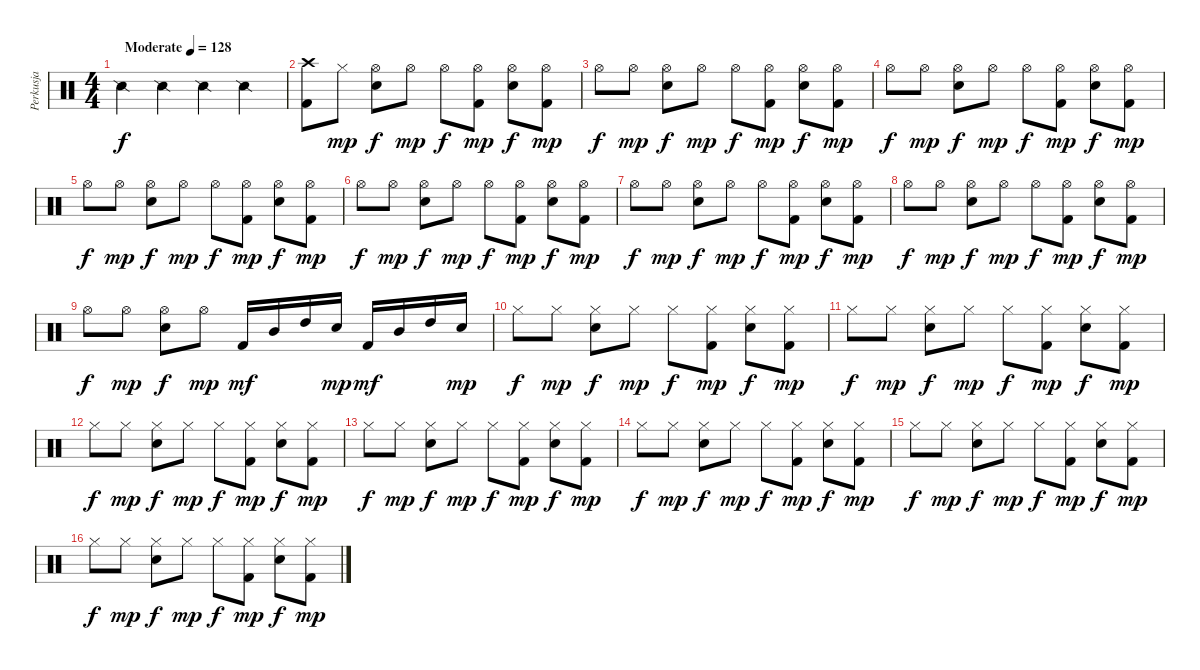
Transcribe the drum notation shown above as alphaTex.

\track ("Perkusja" "Perkusja") {instrument percussion}
\staff {score}
\articulation defaults
\ts (4 4)
\tempo (128 "Moderate")
\clef neutral
\ks c "Snare (side stick) 2".4{dy f} "Snare (side stick) 2".4 "Snare (side stick) 2".4 "Snare (side stick) 2".4
|
("Crash high (hit)" "Kick (hit) 2").8 "Hi-Hat (closed)".8{dy mp} ("Hi-Hat (open)" "Electric Snare (hit)").8{dy f} "Hi-Hat (open)".8{dy mp} "Hi-Hat (open)".8{dy f} ("Hi-Hat (open)" "Kick (hit) 2").8{dy mp} ("Hi-Hat (open)" "Electric Snare (hit)").8{dy f} ("Hi-Hat (open)" "Kick (hit) 2").8{dy mp} |
"Hi-Hat (open)".8{dy f} "Hi-Hat (open)".8{dy mp} ("Hi-Hat (open)" "Electric Snare (hit)").8{dy f} "Hi-Hat (open)".8{dy mp} "Hi-Hat (open)".8{dy f} ("Hi-Hat (open)" "Kick (hit) 2").8{dy mp} ("Hi-Hat (open)" "Electric Snare (hit)").8{dy f} ("Hi-Hat (open)" "Kick (hit) 2").8{dy mp} |
"Hi-Hat (open)".8{dy f} "Hi-Hat (open)".8{dy mp} ("Hi-Hat (open)" "Electric Snare (hit)").8{dy f} "Hi-Hat (open)".8{dy mp} "Hi-Hat (open)".8{dy f} ("Hi-Hat (open)" "Kick (hit) 2").8{dy mp} ("Hi-Hat (open)" "Electric Snare (hit)").8{dy f} ("Hi-Hat (open)" "Kick (hit) 2").8{dy mp} |
"Hi-Hat (open)".8{dy f} "Hi-Hat (open)".8{dy mp} ("Hi-Hat (open)" "Electric Snare (hit)").8{dy f} "Hi-Hat (open)".8{dy mp} "Hi-Hat (open)".8{dy f} ("Hi-Hat (open)" "Kick (hit) 2").8{dy mp} ("Hi-Hat (open)" "Electric Snare (hit)").8{dy f} ("Hi-Hat (open)" "Kick (hit) 2").8{dy mp} |
"Hi-Hat (open)".8{dy f} "Hi-Hat (open)".8{dy mp} ("Hi-Hat (open)" "Electric Snare (hit)").8{dy f} "Hi-Hat (open)".8{dy mp} "Hi-Hat (open)".8{dy f} ("Hi-Hat (open)" "Kick (hit) 2").8{dy mp} ("Hi-Hat (open)" "Electric Snare (hit)").8{dy f} ("Hi-Hat (open)" "Kick (hit) 2").8{dy mp} |
"Hi-Hat (open)".8{dy f} "Hi-Hat (open)".8{dy mp} ("Hi-Hat (open)" "Electric Snare (hit)").8{dy f} "Hi-Hat (open)".8{dy mp} "Hi-Hat (open)".8{dy f} ("Hi-Hat (open)" "Kick (hit) 2").8{dy mp} ("Hi-Hat (open)" "Electric Snare (hit)").8{dy f} ("Hi-Hat (open)" "Kick (hit) 2").8{dy mp} |
"Hi-Hat (open)".8{dy f} "Hi-Hat (open)".8{dy mp} ("Hi-Hat (open)" "Electric Snare (hit)").8{dy f} "Hi-Hat (open)".8{dy mp} "Hi-Hat (open)".8{dy f} ("Hi-Hat (open)" "Kick (hit) 2").8{dy mp} ("Hi-Hat (open)" "Electric Snare (hit)").8{dy f} ("Hi-Hat (open)" "Kick (hit) 2").8{dy mp} |
"Hi-Hat (open)".8{dy f} "Hi-Hat (open)".8{dy mp} ("Hi-Hat (open)" "Electric Snare (hit)").8{dy f} "Hi-Hat (open)".8{dy mp} "Kick (hit) 2".16{dy mf} "Mid Tom (hit)".16 "High Tom (hit)".16 "Electric Snare (hit)".16{dy mp} "Kick (hit) 2".16{dy mf} "Mid Tom (hit)".16 "High Tom (hit)".16 "Electric Snare (hit)".16{dy mp} |
"Hi-Hat (closed)".8{dy f} "Hi-Hat (closed)".8{dy mp} ("Hi-Hat (closed)" "Electric Snare (hit)").8{dy f} "Hi-Hat (closed)".8{dy mp} "Hi-Hat (closed)".8{dy f} ("Hi-Hat (closed)" "Kick (hit) 2").8{dy mp} ("Hi-Hat (closed)" "Electric Snare (hit)").8{dy f} ("Hi-Hat (closed)" "Kick (hit) 2").8{dy mp} |
"Hi-Hat (closed)".8{dy f} "Hi-Hat (closed)".8{dy mp} ("Hi-Hat (closed)" "Electric Snare (hit)").8{dy f} "Hi-Hat (closed)".8{dy mp} "Hi-Hat (closed)".8{dy f} ("Hi-Hat (closed)" "Kick (hit) 2").8{dy mp} ("Hi-Hat (closed)" "Electric Snare (hit)").8{dy f} ("Hi-Hat (closed)" "Kick (hit) 2").8{dy mp} |
"Hi-Hat (closed)".8{dy f} "Hi-Hat (closed)".8{dy mp} ("Hi-Hat (closed)" "Electric Snare (hit)").8{dy f} "Hi-Hat (closed)".8{dy mp} "Hi-Hat (closed)".8{dy f} ("Hi-Hat (closed)" "Kick (hit) 2").8{dy mp} ("Hi-Hat (closed)" "Electric Snare (hit)").8{dy f} ("Hi-Hat (closed)" "Kick (hit) 2").8{dy mp} |
"Hi-Hat (closed)".8{dy f} "Hi-Hat (closed)".8{dy mp} ("Hi-Hat (closed)" "Electric Snare (hit)").8{dy f} "Hi-Hat (closed)".8{dy mp} "Hi-Hat (closed)".8{dy f} ("Hi-Hat (closed)" "Kick (hit) 2").8{dy mp} ("Hi-Hat (closed)" "Electric Snare (hit)").8{dy f} ("Hi-Hat (closed)" "Kick (hit) 2").8{dy mp} |
"Hi-Hat (closed)".8{dy f} "Hi-Hat (closed)".8{dy mp} ("Hi-Hat (closed)" "Electric Snare (hit)").8{dy f} "Hi-Hat (closed)".8{dy mp} "Hi-Hat (closed)".8{dy f} ("Hi-Hat (closed)" "Kick (hit) 2").8{dy mp} ("Hi-Hat (closed)" "Electric Snare (hit)").8{dy f} ("Hi-Hat (closed)" "Kick (hit) 2").8{dy mp} |
"Hi-Hat (closed)".8{dy f} "Hi-Hat (closed)".8{dy mp} ("Hi-Hat (closed)" "Electric Snare (hit)").8{dy f} "Hi-Hat (closed)".8{dy mp} "Hi-Hat (closed)".8{dy f} ("Hi-Hat (closed)" "Kick (hit) 2").8{dy mp} ("Hi-Hat (closed)" "Electric Snare (hit)").8{dy f} ("Hi-Hat (closed)" "Kick (hit) 2").8{dy mp} |
"Hi-Hat (closed)".8{dy f} "Hi-Hat (closed)".8{dy mp} ("Hi-Hat (closed)" "Electric Snare (hit)").8{dy f} "Hi-Hat (closed)".8{dy mp} "Hi-Hat (closed)".8{dy f} ("Hi-Hat (closed)" "Kick (hit) 2").8{dy mp} ("Hi-Hat (closed)" "Electric Snare (hit)").8{dy f} ("Hi-Hat (closed)" "Kick (hit) 2").8{dy mp}
